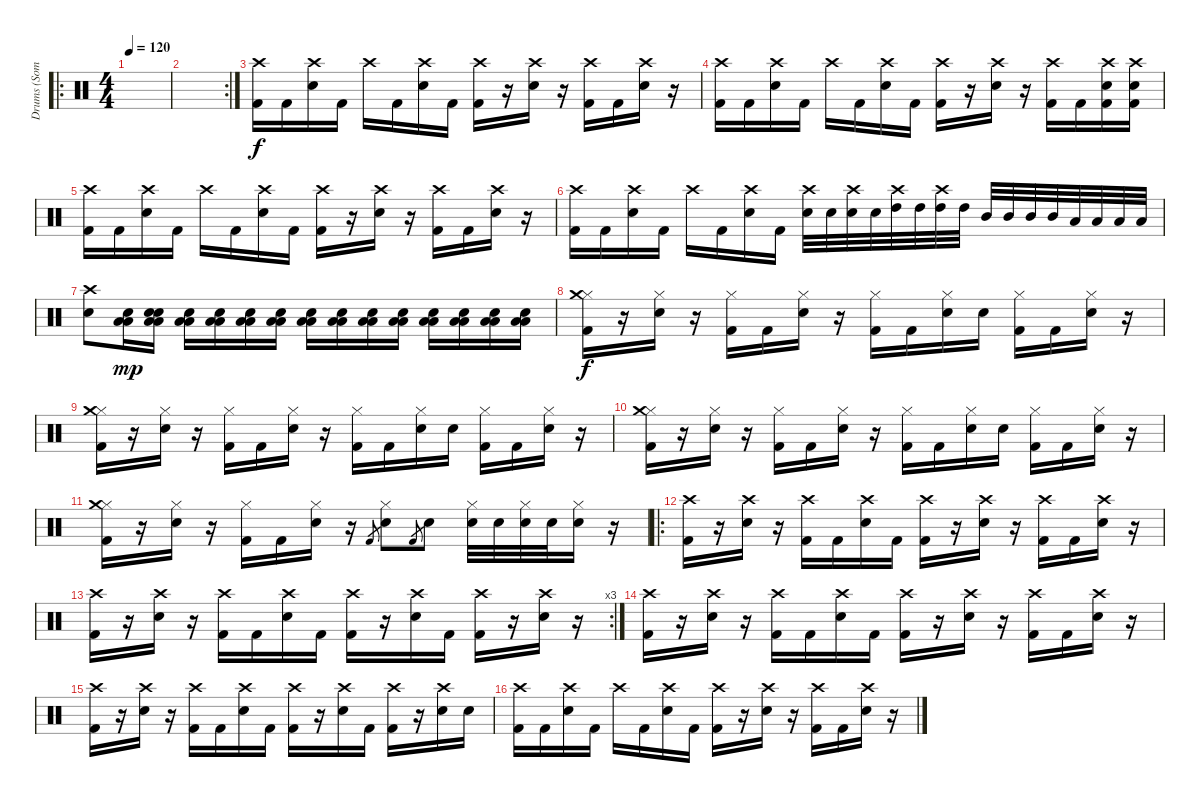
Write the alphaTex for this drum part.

\track ("Drums (Some Person)" "Drums (Som") {instrument percussion}
\staff {score}
\articulation defaults
\ro
\ts (4 4)
\tempo 120
\clef neutral
\ks c
|
\rc 2
|
("Crash high (hit)" "Kick (hit) 2").16 "Kick (hit) 2".16 ("Crash high (hit)" "Snare (hit) 2").16 "Kick (hit) 2".16 "Crash high (hit)".16 "Kick (hit) 2".16 ("Crash high (hit)" "Snare (hit) 2").16 "Kick (hit) 2".16 ("Crash high (hit)" "Kick (hit) 2").16 r.16 ("Crash high (hit)" "Snare (hit) 2").16 r.16 ("Crash high (hit)" "Kick (hit) 2").16 "Kick (hit) 2".16 ("Crash high (hit)" "Snare (hit) 2").16 r.16 |
("Crash high (hit)" "Kick (hit) 2").16 "Kick (hit) 2".16 ("Crash high (hit)" "Snare (hit) 2").16 "Kick (hit) 2".16 "Crash high (hit)".16 "Kick (hit) 2".16 ("Crash high (hit)" "Snare (hit) 2").16 "Kick (hit) 2".16 ("Crash high (hit)" "Kick (hit) 2").16 r.16 ("Crash high (hit)" "Snare (hit) 2").16 r.16 ("Crash high (hit)" "Kick (hit) 2").16 "Kick (hit) 2".16 ("Crash high (hit)" "Snare (hit) 2" "Kick (hit) 2").16 ("Crash high (hit)" "Snare (hit) 2" "Kick (hit) 2").16 |
("Crash high (hit)" "Kick (hit) 2").16 "Kick (hit) 2".16 ("Crash high (hit)" "Snare (hit) 2").16 "Kick (hit) 2".16 "Crash high (hit)".16 "Kick (hit) 2".16 ("Crash high (hit)" "Snare (hit) 2").16 "Kick (hit) 2".16 ("Crash high (hit)" "Kick (hit) 2").16 r.16 ("Crash high (hit)" "Snare (hit) 2").16 r.16 ("Crash high (hit)" "Kick (hit) 2").16 "Kick (hit) 2".16 ("Crash high (hit)" "Snare (hit) 2").16 r.16 |
("Crash high (hit)" "Kick (hit) 2").16 "Kick (hit) 2".16 ("Crash high (hit)" "Snare (hit) 2").16 "Kick (hit) 2".16 "Crash high (hit)".16 "Kick (hit) 2".16 ("Crash high (hit)" "Snare (hit) 2").16 "Kick (hit) 2".16 ("Crash high (hit)" "Snare (hit) 2").32 "Snare (hit) 2".32 ("Crash high (hit)" "Snare (hit) 2").32 "Snare (hit) 2".32 ("Crash high (hit)" "High Tom (hit)").32 "High Tom (hit)".32 ("Crash high (hit)" "High Tom (hit)").32 "High Tom (hit)".32 "Mid Tom (hit)".32 "Mid Tom (hit)".32 "Mid Tom (hit)".32 "Mid Tom (hit)".32 "Low Tom (hit)".32 "Low Tom (hit)".32 "Low Tom (hit)".32 "Low Tom (hit)".32 |
("Snare (hit) 2" "Crash high (hit)").8 ("Low Floor Tom (hit)" "Electric Snare (hit)" "Low Floor Tom (hit)").16{dy mp} ("Low Floor Tom (hit)" "Electric Snare (hit)" "Low Floor Tom (hit)" "Snare (hit)").16 ("Low Floor Tom (hit)" "Electric Snare (hit)" "Low Floor Tom (hit)").16 ("Low Floor Tom (hit)" "Electric Snare (hit)" "Low Floor Tom (hit)").16 ("Low Floor Tom (hit)" "Electric Snare (hit)" "Low Floor Tom (hit)").16 ("Low Floor Tom (hit)" "Electric Snare (hit)" "Low Floor Tom (hit)").16 ("Low Floor Tom (hit)" "Electric Snare (hit)" "Low Floor Tom (hit)").16 ("Low Floor Tom (hit)" "Electric Snare (hit)" "Low Floor Tom (hit)").16 ("Low Floor Tom (hit)" "Electric Snare (hit)" "Low Floor Tom (hit)").16 ("Low Floor Tom (hit)" "Electric Snare (hit)" "Low Floor Tom (hit)").16 ("Low Floor Tom (hit)" "Electric Snare (hit)" "Low Floor Tom (hit)").16 ("Low Floor Tom (hit)" "Electric Snare (hit)" "Low Floor Tom (hit)").16 ("Low Floor Tom (hit)" "Electric Snare (hit)" "Low Floor Tom (hit)").16 ("Low Floor Tom (hit)" "Electric Snare (hit)" "Low Floor Tom (hit)").16 |
("Hi-Hat (closed)" "Crash medium (hit)" "Kick (hit) 2").16{dy f} r.16 ("Hi-Hat (closed)" "Snare (hit) 2").16 r.16 ("Hi-Hat (closed)" "Kick (hit) 2").16 "Kick (hit) 2".16 ("Hi-Hat (closed)" "Snare (hit) 2").16 r.16 ("Hi-Hat (closed)" "Kick (hit) 2").16 "Kick (hit) 2".16 ("Hi-Hat (closed)" "Snare (hit) 2").16 "Snare (hit) 2".16 ("Hi-Hat (closed)" "Kick (hit) 2").16 "Kick (hit) 2".16 ("Hi-Hat (closed)" "Snare (hit) 2").16 r.16 |
("Hi-Hat (closed)" "Crash medium (hit)" "Kick (hit) 2").16 r.16 ("Hi-Hat (closed)" "Snare (hit) 2").16 r.16 ("Hi-Hat (closed)" "Kick (hit) 2").16 "Kick (hit) 2".16 ("Hi-Hat (closed)" "Snare (hit) 2").16 r.16 ("Hi-Hat (closed)" "Kick (hit) 2").16 "Kick (hit) 2".16 ("Hi-Hat (closed)" "Snare (hit) 2").16 "Snare (hit) 2".16 ("Hi-Hat (closed)" "Kick (hit) 2").16 "Kick (hit) 2".16 ("Hi-Hat (closed)" "Snare (hit) 2").16 r.16 |
("Hi-Hat (closed)" "Crash medium (hit)" "Kick (hit) 2").16 r.16 ("Hi-Hat (closed)" "Snare (hit) 2").16 r.16 ("Hi-Hat (closed)" "Kick (hit) 2").16 "Kick (hit) 2".16 ("Hi-Hat (closed)" "Snare (hit) 2").16 r.16 ("Hi-Hat (closed)" "Kick (hit) 2").16 "Kick (hit) 2".16 ("Hi-Hat (closed)" "Snare (hit) 2").16 "Snare (hit) 2".16 ("Hi-Hat (closed)" "Kick (hit) 2").16 "Kick (hit) 2".16 ("Hi-Hat (closed)" "Snare (hit) 2").16 r.16 |
("Hi-Hat (closed)" "Crash medium (hit)" "Kick (hit) 2").16 r.16 ("Hi-Hat (closed)" "Snare (hit) 2").16 r.16 ("Hi-Hat (closed)" "Kick (hit) 2").16 "Kick (hit) 2".16 ("Hi-Hat (closed)" "Snare (hit) 2").16 r.16 "Kick (hit) 2".8{gr} ("Hi-Hat (closed)" "Snare (hit) 2").8 "Kick (hit) 2".8{gr} "Snare (hit) 2".8 ("Hi-Hat (closed)" "Snare (hit) 2").32 "Snare (hit) 2".32 ("Hi-Hat (closed)" "Snare (hit) 2").32 "Snare (hit) 2".32 ("Hi-Hat (closed)" "Snare (hit) 2").16 r.16 |
\ro
("Crash high (hit)" "Kick (hit) 2").16 r.16 ("Crash high (hit)" "Snare (hit) 2").16 r.16 ("Crash high (hit)" "Kick (hit) 2").16 "Kick (hit) 2".16 ("Crash high (hit)" "Snare (hit) 2").16 "Kick (hit) 2".16 ("Crash high (hit)" "Kick (hit) 2").16 r.16 ("Crash high (hit)" "Snare (hit) 2").16 r.16 ("Crash high (hit)" "Kick (hit) 2").16 "Kick (hit) 2".16 ("Crash high (hit)" "Snare (hit) 2").16 r.16 |
\rc 3
("Crash high (hit)" "Kick (hit) 2").16 r.16 ("Crash high (hit)" "Snare (hit) 2").16 r.16 ("Crash high (hit)" "Kick (hit) 2").16 "Kick (hit) 2".16 ("Crash high (hit)" "Snare (hit) 2").16 "Kick (hit) 2".16 ("Crash high (hit)" "Kick (hit) 2").16 r.16 ("Crash high (hit)" "Snare (hit) 2").16 "Kick (hit) 2".16 ("Crash high (hit)" "Kick (hit) 2").16 r.16 ("Crash high (hit)" "Snare (hit) 2").16 r.16 |
("Crash high (hit)" "Kick (hit) 2").16 r.16 ("Crash high (hit)" "Snare (hit) 2").16 r.16 ("Crash high (hit)" "Kick (hit) 2").16 "Kick (hit) 2".16 ("Crash high (hit)" "Snare (hit) 2").16 "Kick (hit) 2".16 ("Crash high (hit)" "Kick (hit) 2").16 r.16 ("Crash high (hit)" "Snare (hit) 2").16 r.16 ("Crash high (hit)" "Kick (hit) 2").16 "Kick (hit) 2".16 ("Crash high (hit)" "Snare (hit) 2").16 r.16 |
("Crash high (hit)" "Kick (hit) 2").16 r.16 ("Crash high (hit)" "Snare (hit) 2").16 r.16 ("Crash high (hit)" "Kick (hit) 2").16 "Kick (hit) 2".16 ("Crash high (hit)" "Snare (hit) 2").16 "Kick (hit) 2".16 ("Crash high (hit)" "Kick (hit) 2").16 r.16 ("Crash high (hit)" "Snare (hit) 2").16 "Kick (hit) 2".16 ("Crash high (hit)" "Kick (hit) 2").16 r.16 ("Crash high (hit)" "Snare (hit) 2").16 "Snare (hit) 2".16 |
("Crash high (hit)" "Kick (hit) 2").16 "Kick (hit) 2".16 ("Crash high (hit)" "Snare (hit) 2").16 "Kick (hit) 2".16 "Crash high (hit)".16 "Kick (hit) 2".16 ("Crash high (hit)" "Snare (hit) 2").16 "Kick (hit) 2".16 ("Crash high (hit)" "Kick (hit) 2").16 r.16 ("Crash high (hit)" "Snare (hit) 2").16 r.16 ("Crash high (hit)" "Kick (hit) 2").16 "Kick (hit) 2".16 ("Crash high (hit)" "Snare (hit) 2").16 r.16
